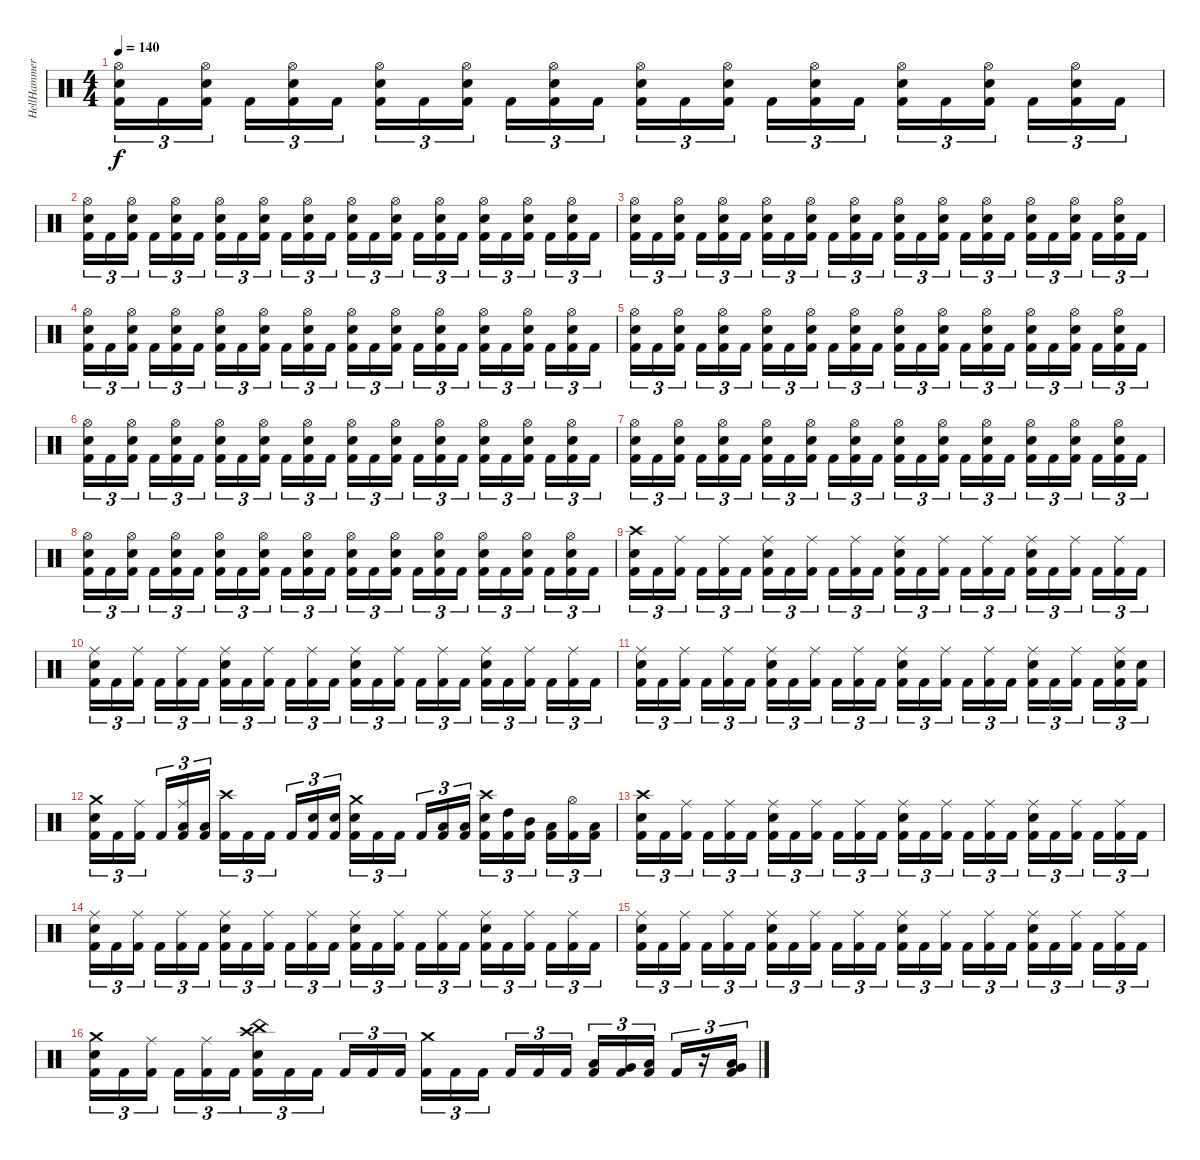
\track ("HellHammer" "HellHammer") {instrument percussion}
\staff {score}
\articulation defaults
\ts (4 4)
\tempo 140
\clef neutral
\ks c
("Hi-Hat (open)" "Electric Snare (hit)" "Kick (hit) 2").16{tu (3 2) dy f} "Kick (hit) 2".16{tu (3 2)} ("Hi-Hat (open)" "Electric Snare (hit)" "Kick (hit) 2").16{tu (3 2) beam splitsecondary} "Kick (hit) 2".16{tu (3 2)} ("Hi-Hat (open)" "Electric Snare (hit)" "Kick (hit) 2").16{tu (3 2)} "Kick (hit) 2".16{tu (3 2)} ("Hi-Hat (open)" "Electric Snare (hit)" "Kick (hit) 2").16{tu (3 2)} "Kick (hit) 2".16{tu (3 2)} ("Hi-Hat (open)" "Electric Snare (hit)" "Kick (hit) 2").16{tu (3 2) beam splitsecondary} "Kick (hit) 2".16{tu (3 2)} ("Hi-Hat (open)" "Electric Snare (hit)" "Kick (hit) 2").16{tu (3 2)} "Kick (hit) 2".16{tu (3 2)} ("Hi-Hat (open)" "Electric Snare (hit)" "Kick (hit) 2").16{tu (3 2)} "Kick (hit) 2".16{tu (3 2)} ("Hi-Hat (open)" "Electric Snare (hit)" "Kick (hit) 2").16{tu (3 2) beam splitsecondary} "Kick (hit) 2".16{tu (3 2)} ("Hi-Hat (open)" "Electric Snare (hit)" "Kick (hit) 2").16{tu (3 2)} "Kick (hit) 2".16{tu (3 2)} ("Hi-Hat (open)" "Electric Snare (hit)" "Kick (hit) 2").16{tu (3 2)} "Kick (hit) 2".16{tu (3 2)} ("Hi-Hat (open)" "Electric Snare (hit)" "Kick (hit) 2").16{tu (3 2) beam splitsecondary} "Kick (hit) 2".16{tu (3 2)} ("Hi-Hat (open)" "Electric Snare (hit)" "Kick (hit) 2").16{tu (3 2)} "Kick (hit) 2".16{tu (3 2)} |
("Hi-Hat (open)" "Electric Snare (hit)" "Kick (hit) 2").16{tu (3 2)} "Kick (hit) 2".16{tu (3 2)} ("Hi-Hat (open)" "Electric Snare (hit)" "Kick (hit) 2").16{tu (3 2) beam splitsecondary} "Kick (hit) 2".16{tu (3 2)} ("Hi-Hat (open)" "Electric Snare (hit)" "Kick (hit) 2").16{tu (3 2)} "Kick (hit) 2".16{tu (3 2)} ("Hi-Hat (open)" "Electric Snare (hit)" "Kick (hit) 2").16{tu (3 2)} "Kick (hit) 2".16{tu (3 2)} ("Hi-Hat (open)" "Electric Snare (hit)" "Kick (hit) 2").16{tu (3 2) beam splitsecondary} "Kick (hit) 2".16{tu (3 2)} ("Hi-Hat (open)" "Electric Snare (hit)" "Kick (hit) 2").16{tu (3 2)} "Kick (hit) 2".16{tu (3 2)} ("Hi-Hat (open)" "Electric Snare (hit)" "Kick (hit) 2").16{tu (3 2)} "Kick (hit) 2".16{tu (3 2)} ("Hi-Hat (open)" "Electric Snare (hit)" "Kick (hit) 2").16{tu (3 2) beam splitsecondary} "Kick (hit) 2".16{tu (3 2)} ("Hi-Hat (open)" "Electric Snare (hit)" "Kick (hit) 2").16{tu (3 2)} "Kick (hit) 2".16{tu (3 2)} ("Hi-Hat (open)" "Electric Snare (hit)" "Kick (hit) 2").16{tu (3 2)} "Kick (hit) 2".16{tu (3 2)} ("Hi-Hat (open)" "Electric Snare (hit)" "Kick (hit) 2").16{tu (3 2) beam splitsecondary} "Kick (hit) 2".16{tu (3 2)} ("Hi-Hat (open)" "Electric Snare (hit)" "Kick (hit) 2").16{tu (3 2)} "Kick (hit) 2".16{tu (3 2)} |
("Hi-Hat (open)" "Electric Snare (hit)" "Kick (hit) 2").16{tu (3 2)} "Kick (hit) 2".16{tu (3 2)} ("Hi-Hat (open)" "Electric Snare (hit)" "Kick (hit) 2").16{tu (3 2) beam splitsecondary} "Kick (hit) 2".16{tu (3 2)} ("Hi-Hat (open)" "Electric Snare (hit)" "Kick (hit) 2").16{tu (3 2)} "Kick (hit) 2".16{tu (3 2)} ("Hi-Hat (open)" "Electric Snare (hit)" "Kick (hit) 2").16{tu (3 2)} "Kick (hit) 2".16{tu (3 2)} ("Hi-Hat (open)" "Electric Snare (hit)" "Kick (hit) 2").16{tu (3 2) beam splitsecondary} "Kick (hit) 2".16{tu (3 2)} ("Hi-Hat (open)" "Electric Snare (hit)" "Kick (hit) 2").16{tu (3 2)} "Kick (hit) 2".16{tu (3 2)} ("Hi-Hat (open)" "Electric Snare (hit)" "Kick (hit) 2").16{tu (3 2)} "Kick (hit) 2".16{tu (3 2)} ("Hi-Hat (open)" "Electric Snare (hit)" "Kick (hit) 2").16{tu (3 2) beam splitsecondary} "Kick (hit) 2".16{tu (3 2)} ("Hi-Hat (open)" "Electric Snare (hit)" "Kick (hit) 2").16{tu (3 2)} "Kick (hit) 2".16{tu (3 2)} ("Hi-Hat (open)" "Electric Snare (hit)" "Kick (hit) 2").16{tu (3 2)} "Kick (hit) 2".16{tu (3 2)} ("Hi-Hat (open)" "Electric Snare (hit)" "Kick (hit) 2").16{tu (3 2) beam splitsecondary} "Kick (hit) 2".16{tu (3 2)} ("Hi-Hat (open)" "Electric Snare (hit)" "Kick (hit) 2").16{tu (3 2)} "Kick (hit) 2".16{tu (3 2)} |
("Hi-Hat (open)" "Electric Snare (hit)" "Kick (hit) 2").16{tu (3 2)} "Kick (hit) 2".16{tu (3 2)} ("Hi-Hat (open)" "Electric Snare (hit)" "Kick (hit) 2").16{tu (3 2) beam splitsecondary} "Kick (hit) 2".16{tu (3 2)} ("Hi-Hat (open)" "Electric Snare (hit)" "Kick (hit) 2").16{tu (3 2)} "Kick (hit) 2".16{tu (3 2)} ("Hi-Hat (open)" "Electric Snare (hit)" "Kick (hit) 2").16{tu (3 2)} "Kick (hit) 2".16{tu (3 2)} ("Hi-Hat (open)" "Electric Snare (hit)" "Kick (hit) 2").16{tu (3 2) beam splitsecondary} "Kick (hit) 2".16{tu (3 2)} ("Hi-Hat (open)" "Electric Snare (hit)" "Kick (hit) 2").16{tu (3 2)} "Kick (hit) 2".16{tu (3 2)} ("Hi-Hat (open)" "Electric Snare (hit)" "Kick (hit) 2").16{tu (3 2)} "Kick (hit) 2".16{tu (3 2)} ("Hi-Hat (open)" "Electric Snare (hit)" "Kick (hit) 2").16{tu (3 2) beam splitsecondary} "Kick (hit) 2".16{tu (3 2)} ("Hi-Hat (open)" "Electric Snare (hit)" "Kick (hit) 2").16{tu (3 2)} "Kick (hit) 2".16{tu (3 2)} ("Hi-Hat (open)" "Electric Snare (hit)" "Kick (hit) 2").16{tu (3 2)} "Kick (hit) 2".16{tu (3 2)} ("Hi-Hat (open)" "Electric Snare (hit)" "Kick (hit) 2").16{tu (3 2) beam splitsecondary} "Kick (hit) 2".16{tu (3 2)} ("Hi-Hat (open)" "Electric Snare (hit)" "Kick (hit) 2").16{tu (3 2)} "Kick (hit) 2".16{tu (3 2)} |
("Hi-Hat (open)" "Electric Snare (hit)" "Kick (hit) 2").16{tu (3 2)} "Kick (hit) 2".16{tu (3 2)} ("Hi-Hat (open)" "Electric Snare (hit)" "Kick (hit) 2").16{tu (3 2) beam splitsecondary} "Kick (hit) 2".16{tu (3 2)} ("Hi-Hat (open)" "Electric Snare (hit)" "Kick (hit) 2").16{tu (3 2)} "Kick (hit) 2".16{tu (3 2)} ("Hi-Hat (open)" "Electric Snare (hit)" "Kick (hit) 2").16{tu (3 2)} "Kick (hit) 2".16{tu (3 2)} ("Hi-Hat (open)" "Electric Snare (hit)" "Kick (hit) 2").16{tu (3 2) beam splitsecondary} "Kick (hit) 2".16{tu (3 2)} ("Hi-Hat (open)" "Electric Snare (hit)" "Kick (hit) 2").16{tu (3 2)} "Kick (hit) 2".16{tu (3 2)} ("Hi-Hat (open)" "Electric Snare (hit)" "Kick (hit) 2").16{tu (3 2)} "Kick (hit) 2".16{tu (3 2)} ("Hi-Hat (open)" "Electric Snare (hit)" "Kick (hit) 2").16{tu (3 2) beam splitsecondary} "Kick (hit) 2".16{tu (3 2)} ("Hi-Hat (open)" "Electric Snare (hit)" "Kick (hit) 2").16{tu (3 2)} "Kick (hit) 2".16{tu (3 2)} ("Hi-Hat (open)" "Electric Snare (hit)" "Kick (hit) 2").16{tu (3 2)} "Kick (hit) 2".16{tu (3 2)} ("Hi-Hat (open)" "Electric Snare (hit)" "Kick (hit) 2").16{tu (3 2) beam splitsecondary} "Kick (hit) 2".16{tu (3 2)} ("Hi-Hat (open)" "Electric Snare (hit)" "Kick (hit) 2").16{tu (3 2)} "Kick (hit) 2".16{tu (3 2)} |
("Hi-Hat (open)" "Electric Snare (hit)" "Kick (hit) 2").16{tu (3 2)} "Kick (hit) 2".16{tu (3 2)} ("Hi-Hat (open)" "Electric Snare (hit)" "Kick (hit) 2").16{tu (3 2) beam splitsecondary} "Kick (hit) 2".16{tu (3 2)} ("Hi-Hat (open)" "Electric Snare (hit)" "Kick (hit) 2").16{tu (3 2)} "Kick (hit) 2".16{tu (3 2)} ("Hi-Hat (open)" "Electric Snare (hit)" "Kick (hit) 2").16{tu (3 2)} "Kick (hit) 2".16{tu (3 2)} ("Hi-Hat (open)" "Electric Snare (hit)" "Kick (hit) 2").16{tu (3 2) beam splitsecondary} "Kick (hit) 2".16{tu (3 2)} ("Hi-Hat (open)" "Electric Snare (hit)" "Kick (hit) 2").16{tu (3 2)} "Kick (hit) 2".16{tu (3 2)} ("Hi-Hat (open)" "Electric Snare (hit)" "Kick (hit) 2").16{tu (3 2)} "Kick (hit) 2".16{tu (3 2)} ("Hi-Hat (open)" "Electric Snare (hit)" "Kick (hit) 2").16{tu (3 2) beam splitsecondary} "Kick (hit) 2".16{tu (3 2)} ("Hi-Hat (open)" "Electric Snare (hit)" "Kick (hit) 2").16{tu (3 2)} "Kick (hit) 2".16{tu (3 2)} ("Hi-Hat (open)" "Electric Snare (hit)" "Kick (hit) 2").16{tu (3 2)} "Kick (hit) 2".16{tu (3 2)} ("Hi-Hat (open)" "Electric Snare (hit)" "Kick (hit) 2").16{tu (3 2) beam splitsecondary} "Kick (hit) 2".16{tu (3 2)} ("Hi-Hat (open)" "Electric Snare (hit)" "Kick (hit) 2").16{tu (3 2)} "Kick (hit) 2".16{tu (3 2)} |
("Hi-Hat (open)" "Electric Snare (hit)" "Kick (hit) 2").16{tu (3 2)} "Kick (hit) 2".16{tu (3 2)} ("Hi-Hat (open)" "Electric Snare (hit)" "Kick (hit) 2").16{tu (3 2) beam splitsecondary} "Kick (hit) 2".16{tu (3 2)} ("Hi-Hat (open)" "Electric Snare (hit)" "Kick (hit) 2").16{tu (3 2)} "Kick (hit) 2".16{tu (3 2)} ("Hi-Hat (open)" "Electric Snare (hit)" "Kick (hit) 2").16{tu (3 2)} "Kick (hit) 2".16{tu (3 2)} ("Hi-Hat (open)" "Electric Snare (hit)" "Kick (hit) 2").16{tu (3 2) beam splitsecondary} "Kick (hit) 2".16{tu (3 2)} ("Hi-Hat (open)" "Electric Snare (hit)" "Kick (hit) 2").16{tu (3 2)} "Kick (hit) 2".16{tu (3 2)} ("Hi-Hat (open)" "Electric Snare (hit)" "Kick (hit) 2").16{tu (3 2)} "Kick (hit) 2".16{tu (3 2)} ("Hi-Hat (open)" "Electric Snare (hit)" "Kick (hit) 2").16{tu (3 2) beam splitsecondary} "Kick (hit) 2".16{tu (3 2)} ("Hi-Hat (open)" "Electric Snare (hit)" "Kick (hit) 2").16{tu (3 2)} "Kick (hit) 2".16{tu (3 2)} ("Hi-Hat (open)" "Electric Snare (hit)" "Kick (hit) 2").16{tu (3 2)} "Kick (hit) 2".16{tu (3 2)} ("Hi-Hat (open)" "Electric Snare (hit)" "Kick (hit) 2").16{tu (3 2) beam splitsecondary} "Kick (hit) 2".16{tu (3 2)} ("Hi-Hat (open)" "Electric Snare (hit)" "Kick (hit) 2").16{tu (3 2)} "Kick (hit) 2".16{tu (3 2)} |
("Hi-Hat (open)" "Electric Snare (hit)" "Kick (hit) 2").16{tu (3 2)} "Kick (hit) 2".16{tu (3 2)} ("Hi-Hat (open)" "Electric Snare (hit)" "Kick (hit) 2").16{tu (3 2) beam splitsecondary} "Kick (hit) 2".16{tu (3 2)} ("Hi-Hat (open)" "Electric Snare (hit)" "Kick (hit) 2").16{tu (3 2)} "Kick (hit) 2".16{tu (3 2)} ("Hi-Hat (open)" "Electric Snare (hit)" "Kick (hit) 2").16{tu (3 2)} "Kick (hit) 2".16{tu (3 2)} ("Hi-Hat (open)" "Electric Snare (hit)" "Kick (hit) 2").16{tu (3 2) beam splitsecondary} "Kick (hit) 2".16{tu (3 2)} ("Hi-Hat (open)" "Electric Snare (hit)" "Kick (hit) 2").16{tu (3 2)} "Kick (hit) 2".16{tu (3 2)} ("Hi-Hat (open)" "Electric Snare (hit)" "Kick (hit) 2").16{tu (3 2)} "Kick (hit) 2".16{tu (3 2)} ("Hi-Hat (open)" "Electric Snare (hit)" "Kick (hit) 2").16{tu (3 2) beam splitsecondary} "Kick (hit) 2".16{tu (3 2)} ("Hi-Hat (open)" "Electric Snare (hit)" "Kick (hit) 2").16{tu (3 2)} "Kick (hit) 2".16{tu (3 2)} ("Hi-Hat (open)" "Electric Snare (hit)" "Kick (hit) 2").16{tu (3 2)} "Kick (hit) 2".16{tu (3 2)} ("Hi-Hat (open)" "Electric Snare (hit)" "Kick (hit) 2").16{tu (3 2) beam splitsecondary} "Kick (hit) 2".16{tu (3 2)} ("Hi-Hat (open)" "Electric Snare (hit)" "Kick (hit) 2").16{tu (3 2)} "Kick (hit) 2".16{tu (3 2)} |
("Crash high (hit)" "Electric Snare (hit)" "Kick (hit) 2").16{tu (3 2)} "Kick (hit) 2".16{tu (3 2)} ("Ride (middle)" "Kick (hit) 2").16{tu (3 2) beam splitsecondary} "Kick (hit) 2".16{tu (3 2)} ("Ride (middle)" "Kick (hit) 2").16{tu (3 2)} "Kick (hit) 2".16{tu (3 2)} ("Ride (middle)" "Electric Snare (hit)" "Kick (hit) 2").16{tu (3 2)} "Kick (hit) 2".16{tu (3 2)} ("Ride (middle)" "Kick (hit) 2").16{tu (3 2) beam splitsecondary} "Kick (hit) 2".16{tu (3 2)} ("Ride (middle)" "Kick (hit) 2").16{tu (3 2)} "Kick (hit) 2".16{tu (3 2)} ("Ride (middle)" "Electric Snare (hit)" "Kick (hit) 2").16{tu (3 2)} "Kick (hit) 2".16{tu (3 2)} ("Ride (middle)" "Kick (hit) 2").16{tu (3 2) beam splitsecondary} "Kick (hit) 2".16{tu (3 2)} ("Ride (middle)" "Kick (hit) 2").16{tu (3 2)} "Kick (hit) 2".16{tu (3 2)} ("Ride (middle)" "Electric Snare (hit)" "Kick (hit) 2").16{tu (3 2)} "Kick (hit) 2".16{tu (3 2)} ("Ride (middle)" "Kick (hit) 2").16{tu (3 2) beam splitsecondary} "Kick (hit) 2".16{tu (3 2)} ("Ride (middle)" "Kick (hit) 2").16{tu (3 2)} "Kick (hit) 2".16{tu (3 2)} |
("Ride (middle)" "Electric Snare (hit)" "Kick (hit) 2").16{tu (3 2)} "Kick (hit) 2".16{tu (3 2)} ("Ride (middle)" "Kick (hit) 2").16{tu (3 2) beam splitsecondary} "Kick (hit) 2".16{tu (3 2)} ("Ride (middle)" "Kick (hit) 2").16{tu (3 2)} "Kick (hit) 2".16{tu (3 2)} ("Ride (middle)" "Electric Snare (hit)" "Kick (hit) 2").16{tu (3 2)} "Kick (hit) 2".16{tu (3 2)} ("Ride (middle)" "Kick (hit) 2").16{tu (3 2) beam splitsecondary} "Kick (hit) 2".16{tu (3 2)} ("Ride (middle)" "Kick (hit) 2").16{tu (3 2)} "Kick (hit) 2".16{tu (3 2)} ("Ride (middle)" "Electric Snare (hit)" "Kick (hit) 2").16{tu (3 2)} "Kick (hit) 2".16{tu (3 2)} ("Ride (middle)" "Kick (hit) 2").16{tu (3 2) beam splitsecondary} "Kick (hit) 2".16{tu (3 2)} ("Ride (middle)" "Kick (hit) 2").16{tu (3 2)} "Kick (hit) 2".16{tu (3 2)} ("Ride (middle)" "Electric Snare (hit)" "Kick (hit) 2").16{tu (3 2)} "Kick (hit) 2".16{tu (3 2)} ("Ride (middle)" "Kick (hit) 2").16{tu (3 2) beam splitsecondary} "Kick (hit) 2".16{tu (3 2)} ("Ride (middle)" "Kick (hit) 2").16{tu (3 2)} "Kick (hit) 2".16{tu (3 2)} |
("Ride (middle)" "Electric Snare (hit)" "Kick (hit) 2").16{tu (3 2)} "Kick (hit) 2".16{tu (3 2)} ("Ride (middle)" "Kick (hit) 2").16{tu (3 2) beam splitsecondary} "Kick (hit) 2".16{tu (3 2)} ("Ride (middle)" "Kick (hit) 2").16{tu (3 2)} "Kick (hit) 2".16{tu (3 2)} ("Ride (middle)" "Electric Snare (hit)" "Kick (hit) 2").16{tu (3 2)} "Kick (hit) 2".16{tu (3 2)} ("Ride (middle)" "Kick (hit) 2").16{tu (3 2) beam splitsecondary} "Kick (hit) 2".16{tu (3 2)} ("Ride (middle)" "Kick (hit) 2").16{tu (3 2)} "Kick (hit) 2".16{tu (3 2)} ("Ride (middle)" "Electric Snare (hit)" "Kick (hit) 2").16{tu (3 2)} "Kick (hit) 2".16{tu (3 2)} ("Ride (middle)" "Kick (hit) 2").16{tu (3 2) beam splitsecondary} "Kick (hit) 2".16{tu (3 2)} ("Ride (middle)" "Kick (hit) 2").16{tu (3 2)} "Kick (hit) 2".16{tu (3 2)} ("Ride (middle)" "Electric Snare (hit)" "Kick (hit) 2").16{tu (3 2)} "Kick (hit) 2".16{tu (3 2)} ("Ride (middle)" "Kick (hit) 2").16{tu (3 2) beam splitsecondary} "Kick (hit) 2".16{tu (3 2)} ("Ride (middle)" "Electric Snare (hit)" "Kick (hit) 2").16{tu (3 2)} ("Electric Snare (hit)" "Kick (hit) 2").16{tu (3 2)} |
("Crash medium (hit)" "Electric Snare (hit)" "Kick (hit) 2").16{tu (3 2)} "Kick (hit) 2".16{tu (3 2)} ("Ride (middle)" "Kick (hit) 2").16{tu (3 2) beam splitsecondary} "Kick (hit) 2".16{tu (3 2)} ("Ride (middle)" "Low Tom (hit)" "Kick (hit) 2").16{tu (3 2)} ("Low Tom (hit)" "Kick (hit) 2").16{tu (3 2)} ("Crash high (hit)" "Kick (hit) 2").16{tu (3 2)} "Kick (hit) 2".16{tu (3 2)} "Kick (hit) 2".16{tu (3 2) beam splitsecondary} "Kick (hit) 2".16{tu (3 2)} ("Electric Snare (hit)" "Kick (hit) 2").16{tu (3 2)} ("Electric Snare (hit)" "Kick (hit) 2").16{tu (3 2)} ("Crash medium (hit)" "Electric Snare (hit)" "Kick (hit) 2").16{tu (3 2)} "Kick (hit) 2".16{tu (3 2)} "Kick (hit) 2".16{tu (3 2) beam splitsecondary} "Kick (hit) 2".16{tu (3 2)} ("Low Tom (hit)" "Kick (hit) 2").16{tu (3 2)} ("Low Tom (hit)" "Kick (hit) 2").16{tu (3 2)} ("Crash high (hit)" "Electric Snare (hit)" "Kick (hit) 2").16{tu (3 2)} ("High Tom (hit)" "Kick (hit) 2").16{tu (3 2)} ("Mid Tom (hit)" "Kick (hit) 2").16{tu (3 2) beam splitsecondary} ("Low Tom (hit)" "Kick (hit) 2").16{tu (3 2)} ("Hi-Hat (open)" "Kick (hit) 2").16{tu (3 2)} ("Low Floor Tom (hit)" "Kick (hit) 2").16{tu (3 2)} |
("Crash high (hit)" "Electric Snare (hit)" "Kick (hit) 2").16{tu (3 2)} "Kick (hit) 2".16{tu (3 2)} ("Ride (middle)" "Kick (hit) 2").16{tu (3 2) beam splitsecondary} "Kick (hit) 2".16{tu (3 2)} ("Ride (middle)" "Kick (hit) 2").16{tu (3 2)} "Kick (hit) 2".16{tu (3 2)} ("Ride (middle)" "Electric Snare (hit)" "Kick (hit) 2").16{tu (3 2)} "Kick (hit) 2".16{tu (3 2)} ("Ride (middle)" "Kick (hit) 2").16{tu (3 2) beam splitsecondary} "Kick (hit) 2".16{tu (3 2)} ("Ride (middle)" "Kick (hit) 2").16{tu (3 2)} "Kick (hit) 2".16{tu (3 2)} ("Ride (middle)" "Electric Snare (hit)" "Kick (hit) 2").16{tu (3 2)} "Kick (hit) 2".16{tu (3 2)} ("Ride (middle)" "Kick (hit) 2").16{tu (3 2) beam splitsecondary} "Kick (hit) 2".16{tu (3 2)} ("Ride (middle)" "Kick (hit) 2").16{tu (3 2)} "Kick (hit) 2".16{tu (3 2)} ("Ride (middle)" "Electric Snare (hit)" "Kick (hit) 2").16{tu (3 2)} "Kick (hit) 2".16{tu (3 2)} ("Ride (middle)" "Kick (hit) 2").16{tu (3 2) beam splitsecondary} "Kick (hit) 2".16{tu (3 2)} ("Ride (middle)" "Kick (hit) 2").16{tu (3 2)} "Kick (hit) 2".16{tu (3 2)} |
("Ride (middle)" "Electric Snare (hit)" "Kick (hit) 2").16{tu (3 2)} "Kick (hit) 2".16{tu (3 2)} ("Ride (middle)" "Kick (hit) 2").16{tu (3 2) beam splitsecondary} "Kick (hit) 2".16{tu (3 2)} ("Ride (middle)" "Kick (hit) 2").16{tu (3 2)} "Kick (hit) 2".16{tu (3 2)} ("Ride (middle)" "Electric Snare (hit)" "Kick (hit) 2").16{tu (3 2)} "Kick (hit) 2".16{tu (3 2)} ("Ride (middle)" "Kick (hit) 2").16{tu (3 2) beam splitsecondary} "Kick (hit) 2".16{tu (3 2)} ("Ride (middle)" "Kick (hit) 2").16{tu (3 2)} "Kick (hit) 2".16{tu (3 2)} ("Ride (middle)" "Electric Snare (hit)" "Kick (hit) 2").16{tu (3 2)} "Kick (hit) 2".16{tu (3 2)} ("Ride (middle)" "Kick (hit) 2").16{tu (3 2) beam splitsecondary} "Kick (hit) 2".16{tu (3 2)} ("Ride (middle)" "Kick (hit) 2").16{tu (3 2)} "Kick (hit) 2".16{tu (3 2)} ("Ride (middle)" "Electric Snare (hit)" "Kick (hit) 2").16{tu (3 2)} "Kick (hit) 2".16{tu (3 2)} ("Ride (middle)" "Kick (hit) 2").16{tu (3 2) beam splitsecondary} "Kick (hit) 2".16{tu (3 2)} ("Ride (middle)" "Kick (hit) 2").16{tu (3 2)} "Kick (hit) 2".16{tu (3 2)} |
("Ride (middle)" "Electric Snare (hit)" "Kick (hit) 2").16{tu (3 2)} "Kick (hit) 2".16{tu (3 2)} ("Ride (middle)" "Kick (hit) 2").16{tu (3 2) beam splitsecondary} "Kick (hit) 2".16{tu (3 2)} ("Ride (middle)" "Kick (hit) 2").16{tu (3 2)} "Kick (hit) 2".16{tu (3 2)} ("Ride (middle)" "Electric Snare (hit)" "Kick (hit) 2").16{tu (3 2)} "Kick (hit) 2".16{tu (3 2)} ("Ride (middle)" "Kick (hit) 2").16{tu (3 2) beam splitsecondary} "Kick (hit) 2".16{tu (3 2)} ("Ride (middle)" "Kick (hit) 2").16{tu (3 2)} "Kick (hit) 2".16{tu (3 2)} ("Ride (middle)" "Electric Snare (hit)" "Kick (hit) 2").16{tu (3 2)} "Kick (hit) 2".16{tu (3 2)} ("Ride (middle)" "Kick (hit) 2").16{tu (3 2) beam splitsecondary} "Kick (hit) 2".16{tu (3 2)} ("Ride (middle)" "Kick (hit) 2").16{tu (3 2)} "Kick (hit) 2".16{tu (3 2)} ("Ride (middle)" "Electric Snare (hit)" "Kick (hit) 2").16{tu (3 2)} "Kick (hit) 2".16{tu (3 2)} ("Ride (middle)" "Kick (hit) 2").16{tu (3 2) beam splitsecondary} "Kick (hit) 2".16{tu (3 2)} ("Ride (middle)" "Kick (hit) 2").16{tu (3 2)} "Kick (hit) 2".16{tu (3 2)} |
("Crash medium (hit)" "Electric Snare (hit)" "Kick (hit) 2").16{tu (3 2)} "Kick (hit) 2".16{tu (3 2)} ("Ride (middle)" "Kick (hit) 2").16{tu (3 2) beam splitsecondary} "Kick (hit) 2".16{tu (3 2)} ("Ride (middle)" "Kick (hit) 2").16{tu (3 2)} "Kick (hit) 2".16{tu (3 2)} ("China (hit)" "Crash high (hit)" "Electric Snare (hit)" "Kick (hit) 2").16{tu (3 2)} "Kick (hit) 2".16{tu (3 2)} "Kick (hit) 2".16{tu (3 2) beam splitsecondary} "Kick (hit) 2".16{tu (3 2)} "Kick (hit) 2".16{tu (3 2)} "Kick (hit) 2".16{tu (3 2)} ("Crash medium (hit)" "Kick (hit) 2").16{tu (3 2)} "Kick (hit) 2".16{tu (3 2)} "Kick (hit) 2".16{tu (3 2) beam splitsecondary} "Kick (hit) 2".16{tu (3 2)} "Kick (hit) 2".16{tu (3 2)} "Kick (hit) 2".16{tu (3 2)} ("Low Tom (hit)" "Kick (hit) 2").16{tu (3 2)} ("Very Low Tom (hit)" "Kick (hit) 2").16{tu (3 2)} ("Low Tom (hit)" "Kick (hit) 2").16{tu (3 2) beam splitsecondary} "Kick (hit) 2".16{tu (3 2)} r.16{tu (3 2)} ("Very Low Tom (hit)" "Low Tom (hit)" "Kick (hit) 2").16{tu (3 2)}
